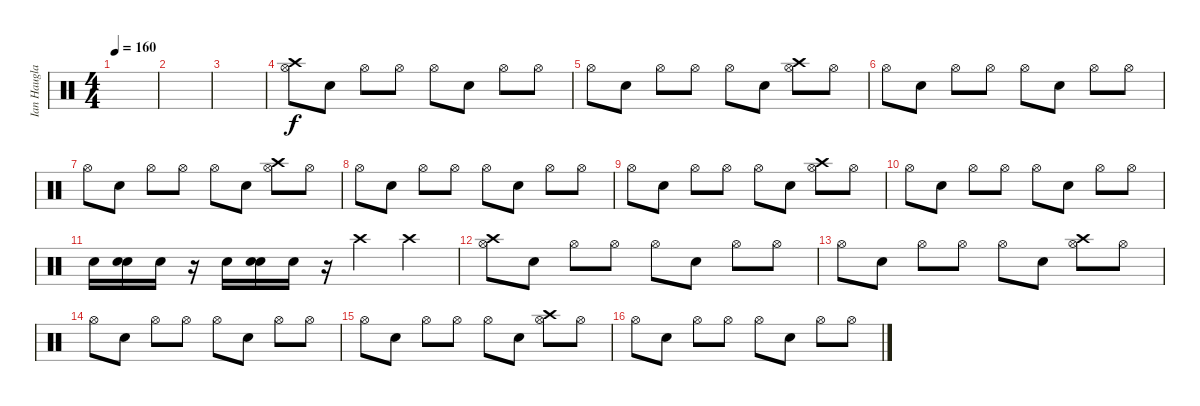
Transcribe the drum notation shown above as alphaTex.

\track ("Ian Haugland" "Ian Haugla") {instrument percussion}
\staff {score}
\articulation defaults
\ts (4 4)
\tempo 160
\clef neutral
\ks c
|
|
|
("Hi-Hat (open)" "Crash high (hit)").8 "Electric Snare (hit)".8 "Hi-Hat (open)".8 "Hi-Hat (open)".8 "Hi-Hat (open)".8 "Snare (hit) 2".8 "Hi-Hat (open)".8 "Hi-Hat (open)".8 |
"Hi-Hat (open)".8 "Electric Snare (hit)".8 "Hi-Hat (open)".8 "Hi-Hat (open)".8 "Hi-Hat (open)".8 "Electric Snare (hit)".8 ("Hi-Hat (open)" "Crash high (hit)").8 "Hi-Hat (open)".8 |
"Hi-Hat (open)".8 "Electric Snare (hit)".8 "Hi-Hat (open)".8 "Hi-Hat (open)".8 "Hi-Hat (open)".8 "Snare (hit) 2".8 "Hi-Hat (open)".8 "Hi-Hat (open)".8 |
"Hi-Hat (open)".8 "Electric Snare (hit)".8 "Hi-Hat (open)".8 "Hi-Hat (open)".8 "Hi-Hat (open)".8 "Electric Snare (hit)".8 ("Hi-Hat (open)" "Crash high (hit)").8 "Hi-Hat (open)".8 |
"Hi-Hat (open)".8 "Electric Snare (hit)".8 "Hi-Hat (open)".8 "Hi-Hat (open)".8 "Hi-Hat (open)".8 "Snare (hit) 2".8 "Hi-Hat (open)".8 "Hi-Hat (open)".8 |
"Hi-Hat (open)".8 "Electric Snare (hit)".8 "Hi-Hat (open)".8 "Hi-Hat (open)".8 "Hi-Hat (open)".8 "Electric Snare (hit)".8 ("Hi-Hat (open)" "Crash high (hit)").8 "Hi-Hat (open)".8 |
"Hi-Hat (open)".8 "Electric Snare (hit)".8 "Hi-Hat (open)".8 "Hi-Hat (open)".8 "Hi-Hat (open)".8 "Snare (hit) 2".8 "Hi-Hat (open)".8 "Hi-Hat (open)".8 |
"Snare (hit) 2".16 ("Electric Snare (hit)" "Snare (hit) 2").16 "Snare (hit) 2".16 r.16 "Snare (hit) 2".16 ("Electric Snare (hit)" "Snare (hit) 2").16 "Snare (hit) 2".16 r.16 "Crash high (hit)".4 "Crash high (hit)".4 |
("Hi-Hat (open)" "Crash high (hit)").8 "Electric Snare (hit)".8 "Hi-Hat (open)".8 "Hi-Hat (open)".8 "Hi-Hat (open)".8 "Snare (hit) 2".8 "Hi-Hat (open)".8 "Hi-Hat (open)".8 |
"Hi-Hat (open)".8 "Electric Snare (hit)".8 "Hi-Hat (open)".8 "Hi-Hat (open)".8 "Hi-Hat (open)".8 "Electric Snare (hit)".8 ("Hi-Hat (open)" "Crash high (hit)").8 "Hi-Hat (open)".8 |
"Hi-Hat (open)".8 "Electric Snare (hit)".8 "Hi-Hat (open)".8 "Hi-Hat (open)".8 "Hi-Hat (open)".8 "Snare (hit) 2".8 "Hi-Hat (open)".8 "Hi-Hat (open)".8 |
"Hi-Hat (open)".8 "Electric Snare (hit)".8 "Hi-Hat (open)".8 "Hi-Hat (open)".8 "Hi-Hat (open)".8 "Electric Snare (hit)".8 ("Hi-Hat (open)" "Crash high (hit)").8 "Hi-Hat (open)".8 |
"Hi-Hat (open)".8 "Electric Snare (hit)".8 "Hi-Hat (open)".8 "Hi-Hat (open)".8 "Hi-Hat (open)".8 "Snare (hit) 2".8 "Hi-Hat (open)".8 "Hi-Hat (open)".8
